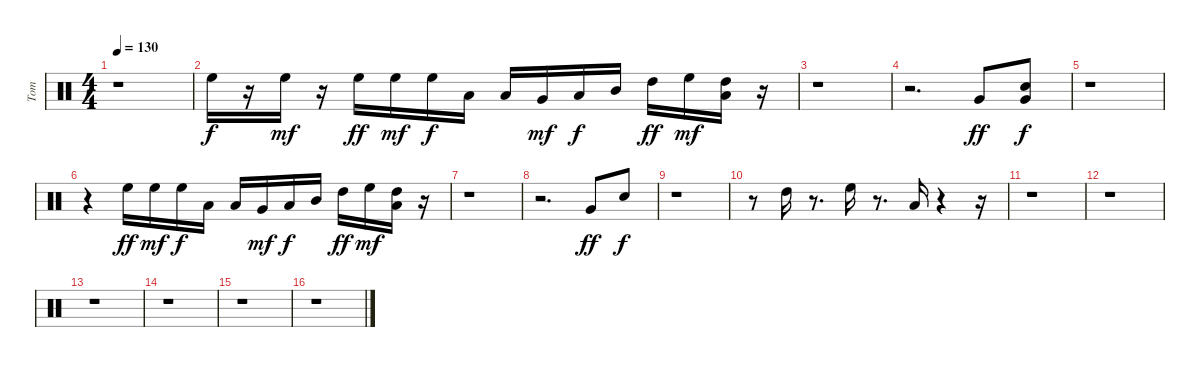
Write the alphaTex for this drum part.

\track ("Tom" "Tom") {instrument percussion}
\staff {score}
\articulation defaults
\ts (4 4)
\tempo 130
\clef neutral
\ks c
r.1{dy f} |
"High Floor Tom (hit)".16 r.16 "High Floor Tom (hit)".16{dy mf} r.16 "High Floor Tom (hit)".16{dy ff} "High Floor Tom (hit)".16{dy mf} "High Floor Tom (hit)".16{dy f} "Low Floor Tom (hit)".16 "Low Floor Tom (hit)".16 "Very Low Tom (hit)".16{dy mf} "Low Tom (hit)".16{dy f} "Mid Tom (hit)".16 "High Tom (hit)".16{dy ff} "High Floor Tom (hit)".16{dy mf} ("High Tom (hit)" "Low Floor Tom (hit)").16 r.16 |
r.1 |
r.2{d} "Very Low Tom (hit)".8{dy ff} ("Very Low Tom (hit)" "Electric Snare (hit)").8{dy f} |
r.1 |
r.4 "High Floor Tom (hit)".16{dy ff} "High Floor Tom (hit)".16{dy mf} "High Floor Tom (hit)".16{dy f} "Low Floor Tom (hit)".16 "Low Floor Tom (hit)".16 "Very Low Tom (hit)".16{dy mf} "Low Tom (hit)".16{dy f} "Mid Tom (hit)".16 "High Tom (hit)".16{dy ff} "High Floor Tom (hit)".16{dy mf} ("High Tom (hit)" "Low Floor Tom (hit)").16 r.16 |
r.1 |
r.2{d} "Very Low Tom (hit)".8{dy ff} "Electric Snare (hit)".8{dy f} |
r.1 |
r.8 "High Tom (hit)".16 r.8{d} "High Floor Tom (hit)".16 r.8{d} "Low Tom (hit)".16 r.4 r.16 |
r.1 |
r.1 |
r.1 |
r.1 |
r.1 |
r.1
